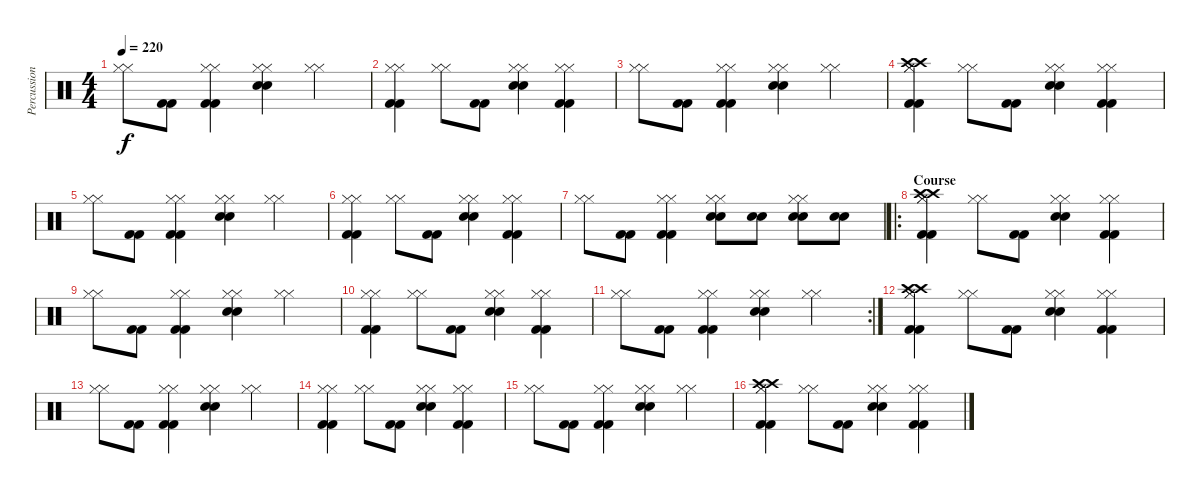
\track ("Percussion" "Percussion") {instrument percussion}
\staff {score}
\articulation defaults
\ts (4 4)
\tempo 220
\clef neutral
\ks c
("Hi-Hat (closed)" "Hi-Hat (closed)").8{dy f} ("Kick (hit) 2" "Kick (hit) 2").8 ("Hi-Hat (closed)" "Hi-Hat (closed)" "Kick (hit) 2" "Kick (hit) 2").4 ("Hi-Hat (closed)" "Hi-Hat (closed)" "Electric Snare (hit)" "Electric Snare (hit)").4 ("Hi-Hat (closed)" "Hi-Hat (closed)").4 |
("Hi-Hat (closed)" "Hi-Hat (closed)" "Kick (hit) 2" "Kick (hit) 2").4 ("Hi-Hat (closed)" "Hi-Hat (closed)").8 ("Kick (hit) 2" "Kick (hit) 2").8 ("Hi-Hat (closed)" "Hi-Hat (closed)" "Electric Snare (hit)" "Electric Snare (hit)").4 ("Hi-Hat (closed)" "Hi-Hat (closed)" "Kick (hit) 2" "Kick (hit) 2").4 |
("Hi-Hat (closed)" "Hi-Hat (closed)").8 ("Kick (hit) 2" "Kick (hit) 2").8 ("Hi-Hat (closed)" "Hi-Hat (closed)" "Kick (hit) 2" "Kick (hit) 2").4 ("Hi-Hat (closed)" "Hi-Hat (closed)" "Electric Snare (hit)" "Electric Snare (hit)").4 ("Hi-Hat (closed)" "Hi-Hat (closed)").4 |
("Hi-Hat (closed)" "Hi-Hat (closed)" "Kick (hit) 2" "Kick (hit) 2" "Crash high (hit)" "Crash high (hit)").4 ("Hi-Hat (closed)" "Hi-Hat (closed)").8 ("Kick (hit) 2" "Kick (hit) 2").8 ("Hi-Hat (closed)" "Hi-Hat (closed)" "Electric Snare (hit)" "Electric Snare (hit)").4 ("Hi-Hat (closed)" "Hi-Hat (closed)" "Kick (hit) 2" "Kick (hit) 2").4 |
("Hi-Hat (closed)" "Hi-Hat (closed)").8 ("Kick (hit) 2" "Kick (hit) 2").8 ("Hi-Hat (closed)" "Hi-Hat (closed)" "Kick (hit) 2" "Kick (hit) 2").4 ("Hi-Hat (closed)" "Hi-Hat (closed)" "Electric Snare (hit)" "Electric Snare (hit)").4 ("Hi-Hat (closed)" "Hi-Hat (closed)").4 |
("Hi-Hat (closed)" "Hi-Hat (closed)" "Kick (hit) 2" "Kick (hit) 2").4 ("Hi-Hat (closed)" "Hi-Hat (closed)").8 ("Kick (hit) 2" "Kick (hit) 2").8 ("Hi-Hat (closed)" "Hi-Hat (closed)" "Electric Snare (hit)" "Electric Snare (hit)").4 ("Hi-Hat (closed)" "Hi-Hat (closed)" "Kick (hit) 2" "Kick (hit) 2").4 |
("Hi-Hat (closed)" "Hi-Hat (closed)").8 ("Kick (hit) 2" "Kick (hit) 2").8 ("Hi-Hat (closed)" "Hi-Hat (closed)" "Kick (hit) 2" "Kick (hit) 2").4 ("Hi-Hat (closed)" "Hi-Hat (closed)" "Electric Snare (hit)" "Electric Snare (hit)").8 ("Electric Snare (hit)" "Electric Snare (hit)").8 ("Hi-Hat (closed)" "Hi-Hat (closed)" "Electric Snare (hit)" "Electric Snare (hit)").8 ("Electric Snare (hit)" "Electric Snare (hit)").8 |
\ro
\section ("" "Course")
("Hi-Hat (closed)" "Hi-Hat (closed)" "Kick (hit) 2" "Kick (hit) 2" "Crash high (hit)" "Crash high (hit)").4 ("Hi-Hat (closed)" "Hi-Hat (closed)").8 ("Kick (hit) 2" "Kick (hit) 2").8 ("Hi-Hat (closed)" "Hi-Hat (closed)" "Electric Snare (hit)" "Electric Snare (hit)").4 ("Hi-Hat (closed)" "Hi-Hat (closed)" "Kick (hit) 2" "Kick (hit) 2").4 |
("Hi-Hat (closed)" "Hi-Hat (closed)").8 ("Kick (hit) 2" "Kick (hit) 2").8 ("Hi-Hat (closed)" "Hi-Hat (closed)" "Kick (hit) 2" "Kick (hit) 2").4 ("Hi-Hat (closed)" "Hi-Hat (closed)" "Electric Snare (hit)" "Electric Snare (hit)").4 ("Hi-Hat (closed)" "Hi-Hat (closed)").4 |
("Hi-Hat (closed)" "Hi-Hat (closed)" "Kick (hit) 2" "Kick (hit) 2").4 ("Hi-Hat (closed)" "Hi-Hat (closed)").8 ("Kick (hit) 2" "Kick (hit) 2").8 ("Hi-Hat (closed)" "Hi-Hat (closed)" "Electric Snare (hit)" "Electric Snare (hit)").4 ("Hi-Hat (closed)" "Hi-Hat (closed)" "Kick (hit) 2" "Kick (hit) 2").4 |
\rc 2
("Hi-Hat (closed)" "Hi-Hat (closed)").8 ("Kick (hit) 2" "Kick (hit) 2").8 ("Hi-Hat (closed)" "Hi-Hat (closed)" "Kick (hit) 2" "Kick (hit) 2").4 ("Hi-Hat (closed)" "Hi-Hat (closed)" "Electric Snare (hit)" "Electric Snare (hit)").4 ("Hi-Hat (closed)" "Hi-Hat (closed)").4 |
("Hi-Hat (closed)" "Hi-Hat (closed)" "Kick (hit) 2" "Kick (hit) 2" "Crash high (hit)" "Crash high (hit)").4 ("Hi-Hat (closed)" "Hi-Hat (closed)").8 ("Kick (hit) 2" "Kick (hit) 2").8 ("Hi-Hat (closed)" "Hi-Hat (closed)" "Electric Snare (hit)" "Electric Snare (hit)").4 ("Hi-Hat (closed)" "Hi-Hat (closed)" "Kick (hit) 2" "Kick (hit) 2").4 |
("Hi-Hat (closed)" "Hi-Hat (closed)").8 ("Kick (hit) 2" "Kick (hit) 2").8 ("Hi-Hat (closed)" "Hi-Hat (closed)" "Kick (hit) 2" "Kick (hit) 2").4 ("Hi-Hat (closed)" "Hi-Hat (closed)" "Electric Snare (hit)" "Electric Snare (hit)").4 ("Hi-Hat (closed)" "Hi-Hat (closed)").4 |
("Hi-Hat (closed)" "Hi-Hat (closed)" "Kick (hit) 2" "Kick (hit) 2").4 ("Hi-Hat (closed)" "Hi-Hat (closed)").8 ("Kick (hit) 2" "Kick (hit) 2").8 ("Hi-Hat (closed)" "Hi-Hat (closed)" "Electric Snare (hit)" "Electric Snare (hit)").4 ("Hi-Hat (closed)" "Hi-Hat (closed)" "Kick (hit) 2" "Kick (hit) 2").4 |
("Hi-Hat (closed)" "Hi-Hat (closed)").8 ("Kick (hit) 2" "Kick (hit) 2").8 ("Hi-Hat (closed)" "Hi-Hat (closed)" "Kick (hit) 2" "Kick (hit) 2").4 ("Hi-Hat (closed)" "Hi-Hat (closed)" "Electric Snare (hit)" "Electric Snare (hit)").4 ("Hi-Hat (closed)" "Hi-Hat (closed)").4 |
("Hi-Hat (closed)" "Hi-Hat (closed)" "Kick (hit) 2" "Kick (hit) 2" "Crash high (hit)" "Crash high (hit)").4 ("Hi-Hat (closed)" "Hi-Hat (closed)").8 ("Kick (hit) 2" "Kick (hit) 2").8 ("Hi-Hat (closed)" "Hi-Hat (closed)" "Electric Snare (hit)" "Electric Snare (hit)").4 ("Hi-Hat (closed)" "Hi-Hat (closed)" "Kick (hit) 2" "Kick (hit) 2").4
